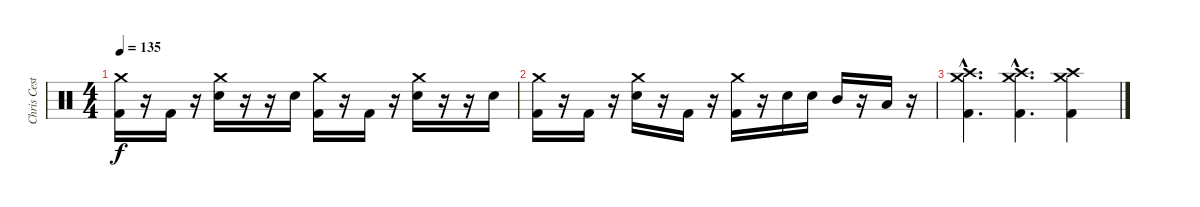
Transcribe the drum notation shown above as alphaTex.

\track ("Chris Cester - Drums" "Chris Cest") {instrument percussion}
\staff {score}
\articulation defaults
\ts (4 4)
\tempo 135
\clef neutral
\ks c
("Crash medium (hit)" "Kick (hit) 2").16{dy f} r.16 "Kick (hit) 2".16 r.16 ("Crash medium (hit)" "Electric Snare (hit)").16 r.16 r.16 "Electric Snare (hit)".16 ("Crash medium (hit)" "Kick (hit) 2").16 r.16 "Kick (hit) 2".16 r.16 ("Crash medium (hit)" "Electric Snare (hit)").16 r.16 r.16 "Electric Snare (hit)".16 |
("Crash medium (hit)" "Kick (hit) 2").16 r.16 "Kick (hit) 2".16 r.16 ("Crash medium (hit)" "Electric Snare (hit)").16 r.16 "Kick (hit) 2".16 r.16 ("Crash medium (hit)" "Kick (hit) 2").16 r.16 "Electric Snare (hit)".16 "Electric Snare (hit)".16 "Mid Tom (hit)".16 r.16 "Low Tom (hit)".16 r.16 |
("Crash high (hit)"{hac} "Crash medium (hit)"{hac} "Kick (hit) 2"{hac}).4{d} ("Crash high (hit)"{hac} "Crash medium (hit)"{hac} "Kick (hit) 2"{hac}).4{d} ("Crash high (hit)" "Crash medium (hit)" "Kick (hit) 2").4
